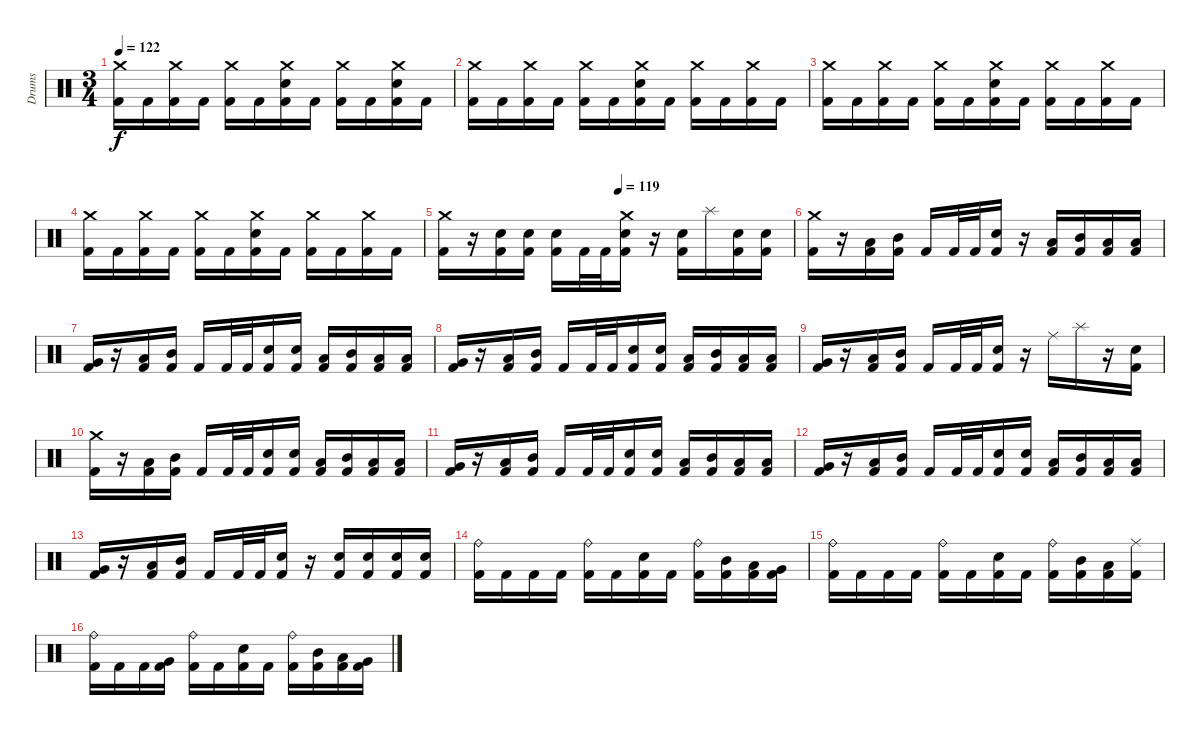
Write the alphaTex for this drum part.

\track ("Drums" "Drums") {instrument percussion}
\staff {score}
\articulation defaults
\ts (3 4)
\tempo 122
\clef neutral
\ks c
("Crash medium (hit)" "Kick (hit) 2").16{dy f} "Kick (hit) 2".16 ("Crash medium (hit)" "Kick (hit) 2").16 "Kick (hit) 2".16 ("Crash medium (hit)" "Kick (hit) 2").16 "Kick (hit) 2".16 ("Crash medium (hit)" "Electric Snare (hit)" "Kick (hit) 2").16 "Kick (hit) 2".16 ("Crash medium (hit)" "Kick (hit) 2").16 "Kick (hit) 2".16 ("Crash medium (hit)" "Electric Snare (hit)" "Kick (hit) 2").16 "Kick (hit) 2".16 |
("Crash medium (hit)" "Kick (hit) 2").16 "Kick (hit) 2".16 ("Crash medium (hit)" "Kick (hit) 2").16 "Kick (hit) 2".16 ("Crash medium (hit)" "Kick (hit) 2").16 "Kick (hit) 2".16 ("Crash medium (hit)" "Electric Snare (hit)" "Kick (hit) 2").16 "Kick (hit) 2".16 ("Crash medium (hit)" "Kick (hit) 2").16 "Kick (hit) 2".16 ("Crash medium (hit)" "Kick (hit) 2").16 "Kick (hit) 2".16 |
("Crash medium (hit)" "Kick (hit) 2").16 "Kick (hit) 2".16 ("Crash medium (hit)" "Kick (hit) 2").16 "Kick (hit) 2".16 ("Crash medium (hit)" "Kick (hit) 2").16 "Kick (hit) 2".16 ("Crash medium (hit)" "Electric Snare (hit)" "Kick (hit) 2").16 "Kick (hit) 2".16 ("Crash medium (hit)" "Kick (hit) 2").16 "Kick (hit) 2".16 ("Crash medium (hit)" "Kick (hit) 2").16 "Kick (hit) 2".16 |
("Crash medium (hit)" "Kick (hit) 2").16 "Kick (hit) 2".16 ("Crash medium (hit)" "Kick (hit) 2").16 "Kick (hit) 2".16 ("Crash medium (hit)" "Kick (hit) 2").16 "Kick (hit) 2".16 ("Crash medium (hit)" "Electric Snare (hit)" "Kick (hit) 2").16 "Kick (hit) 2".16 ("Crash medium (hit)" "Kick (hit) 2").16 "Kick (hit) 2".16 ("Crash medium (hit)" "Kick (hit) 2").16 "Kick (hit) 2".16 |
\tempo (119 0.5)
("Crash medium (hit)" "Kick (hit) 2").16 r.16 ("Electric Snare (hit)" "Kick (hit) 2").16 ("Electric Snare (hit)" "Kick (hit) 2").16 ("Electric Snare (hit)" "Kick (hit) 2").16 "Kick (hit) 2".32 "Kick (hit) 2".32 ("Crash medium (hit)" "Electric Snare (hit)" "Kick (hit) 2").16 r.16 ("Electric Snare (hit)" "Kick (hit) 2").16 "Splash (hit)".16 ("Electric Snare (hit)" "Kick (hit) 2").16 ("Electric Snare (hit)" "Kick (hit) 2").16 |
\section ("" "")
("Crash medium (hit)" "Kick (hit) 2").16 r.16 ("Low Tom (hit)" "Kick (hit) 2").16 ("Mid Tom (hit)" "Kick (hit) 2").16 "Kick (hit) 2".16 "Kick (hit) 2".32 "Kick (hit) 2".32 ("Electric Snare (hit)" "Kick (hit) 2").16 r.16 ("Low Tom (hit)" "Kick (hit) 2").16 ("Mid Tom (hit)" "Kick (hit) 2").16 ("Low Tom (hit)" "Kick (hit) 2").16 ("Low Tom (hit)" "Kick (hit) 2").16 |
("Very Low Tom (hit)" "Kick (hit) 2").16 r.16 ("Low Tom (hit)" "Kick (hit) 2").16 ("Mid Tom (hit)" "Kick (hit) 2").16 "Kick (hit) 2".16 "Kick (hit) 2".32 "Kick (hit) 2".32 ("Electric Snare (hit)" "Kick (hit) 2").16 ("Electric Snare (hit)" "Kick (hit) 2").16 ("Low Tom (hit)" "Kick (hit) 2").16 ("Mid Tom (hit)" "Kick (hit) 2").16 ("Low Tom (hit)" "Kick (hit) 2").16 ("Low Tom (hit)" "Kick (hit) 2").16 |
("Very Low Tom (hit)" "Kick (hit) 2").16 r.16 ("Low Tom (hit)" "Kick (hit) 2").16 ("Mid Tom (hit)" "Kick (hit) 2").16 "Kick (hit) 2".16 "Kick (hit) 2".32 "Kick (hit) 2".32 ("Electric Snare (hit)" "Kick (hit) 2").16 ("Electric Snare (hit)" "Kick (hit) 2").16 ("Low Tom (hit)" "Kick (hit) 2").16 ("Mid Tom (hit)" "Kick (hit) 2").16 ("Low Tom (hit)" "Kick (hit) 2").16 ("Low Tom (hit)" "Kick (hit) 2").16 |
("Very Low Tom (hit)" "Kick (hit) 2").16 r.16 ("Low Tom (hit)" "Kick (hit) 2").16 ("Mid Tom (hit)" "Kick (hit) 2").16 "Kick (hit) 2".16 "Kick (hit) 2".32 "Kick (hit) 2".32 ("Electric Snare (hit)" "Kick (hit) 2").16 r.16 "Ride (middle)".16 "Splash (hit)".16 r.16 ("Electric Snare (hit)" "Kick (hit) 2").16 |
("Crash medium (hit)" "Kick (hit) 2").16 r.16 ("Low Tom (hit)" "Kick (hit) 2").16 ("Mid Tom (hit)" "Kick (hit) 2").16 "Kick (hit) 2".16 "Kick (hit) 2".32 "Kick (hit) 2".32 ("Electric Snare (hit)" "Kick (hit) 2").16 ("Electric Snare (hit)" "Kick (hit) 2").16 ("Low Tom (hit)" "Kick (hit) 2").16 ("Mid Tom (hit)" "Kick (hit) 2").16 ("Low Tom (hit)" "Kick (hit) 2").16 ("Low Tom (hit)" "Kick (hit) 2").16 |
("Very Low Tom (hit)" "Kick (hit) 2").16 r.16 ("Low Tom (hit)" "Kick (hit) 2").16 ("Mid Tom (hit)" "Kick (hit) 2").16 "Kick (hit) 2".16 "Kick (hit) 2".32 "Kick (hit) 2".32 ("Electric Snare (hit)" "Kick (hit) 2").16 ("Electric Snare (hit)" "Kick (hit) 2").16 ("Low Tom (hit)" "Kick (hit) 2").16 ("Mid Tom (hit)" "Kick (hit) 2").16 ("Low Tom (hit)" "Kick (hit) 2").16 ("Low Tom (hit)" "Kick (hit) 2").16 |
("Very Low Tom (hit)" "Kick (hit) 2").16 r.16 ("Low Tom (hit)" "Kick (hit) 2").16 ("Mid Tom (hit)" "Kick (hit) 2").16 "Kick (hit) 2".16 "Kick (hit) 2".32 "Kick (hit) 2".32 ("Electric Snare (hit)" "Kick (hit) 2").16 ("Electric Snare (hit)" "Kick (hit) 2").16 ("Low Tom (hit)" "Kick (hit) 2").16 ("Mid Tom (hit)" "Kick (hit) 2").16 ("Low Tom (hit)" "Kick (hit) 2").16 ("Low Tom (hit)" "Kick (hit) 2").16 |
("Very Low Tom (hit)" "Kick (hit) 2").16 r.16 ("Low Tom (hit)" "Kick (hit) 2").16 ("Mid Tom (hit)" "Kick (hit) 2").16 "Kick (hit) 2".16 "Kick (hit) 2".32 "Kick (hit) 2".32 ("Electric Snare (hit)" "Kick (hit) 2").16 r.16 ("Electric Snare (hit)" "Kick (hit) 2").16 ("Electric Snare (hit)" "Kick (hit) 2").16 ("Electric Snare (hit)" "Kick (hit) 2").16 ("Electric Snare (hit)" "Kick (hit) 2").16 |
\section ("" "")
("Ride (bell)" "Kick (hit) 2").16 "Kick (hit) 2".16 "Kick (hit) 2".16 "Kick (hit) 2".16 ("Ride (bell)" "Kick (hit) 2").16 "Kick (hit) 2".16 ("Electric Snare (hit)" "Kick (hit) 2").16 "Kick (hit) 2".16 ("Ride (bell)" "Kick (hit) 2").16 ("Mid Tom (hit)" "Kick (hit) 2").16 ("Low Tom (hit)" "Kick (hit) 2").16 ("Very Low Tom (hit)" "Kick (hit) 2").16 |
("Ride (bell)" "Kick (hit) 2").16 "Kick (hit) 2".16 "Kick (hit) 2".16 "Kick (hit) 2".16 ("Ride (bell)" "Kick (hit) 2").16 "Kick (hit) 2".16 ("Electric Snare (hit)" "Kick (hit) 2").16 "Kick (hit) 2".16 ("Ride (bell)" "Kick (hit) 2").16 ("Mid Tom (hit)" "Kick (hit) 2").16 ("Low Tom (hit)" "Kick (hit) 2").16 ("Ride (middle)" "Kick (hit) 2").16 |
("Ride (bell)" "Kick (hit) 2").16 "Kick (hit) 2".16 "Kick (hit) 2".16 ("Very Low Tom (hit)" "Kick (hit) 2").16 ("Ride (bell)" "Kick (hit) 2").16 "Kick (hit) 2".16 ("Electric Snare (hit)" "Kick (hit) 2").16 "Kick (hit) 2".16 ("Ride (bell)" "Kick (hit) 2").16 ("Mid Tom (hit)" "Kick (hit) 2").16 ("Low Tom (hit)" "Kick (hit) 2").16 ("Very Low Tom (hit)" "Kick (hit) 2").16
